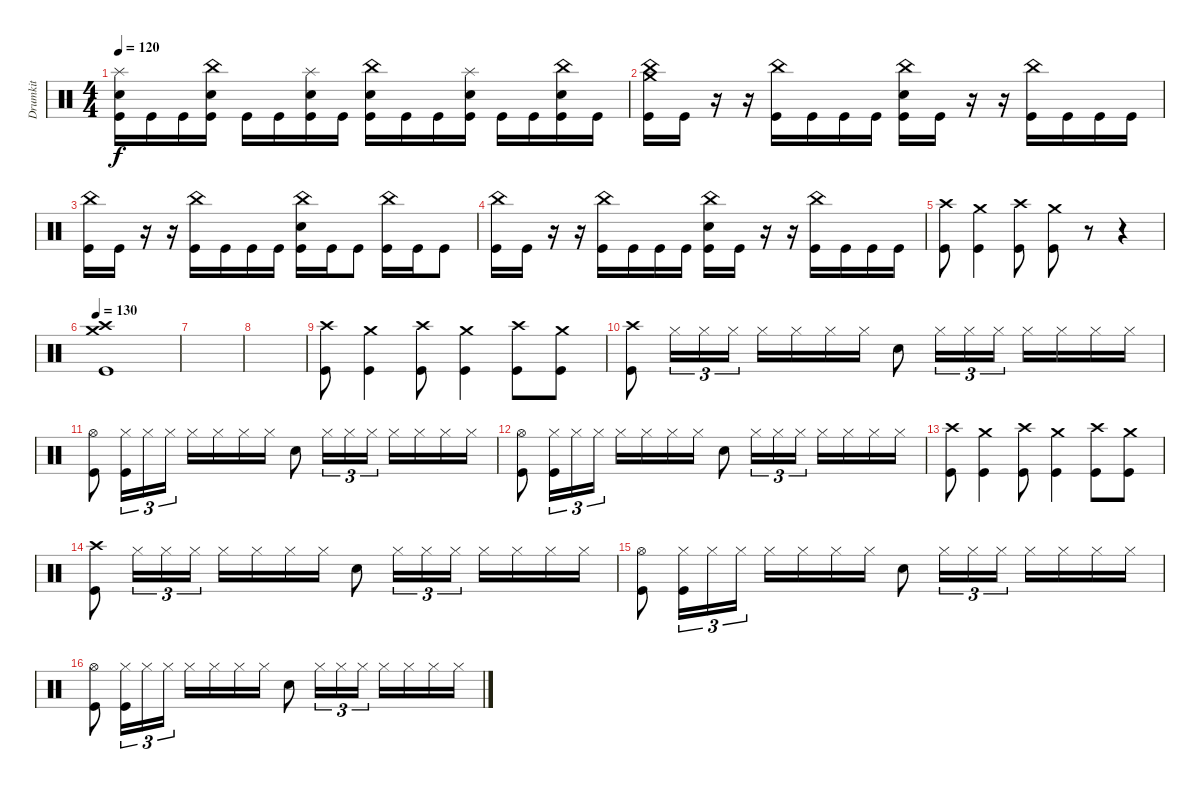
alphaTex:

\track ("Drumkit" "Drumkit") {instrument percussion}
\staff {score}
\articulation defaults
\ts (4 4)
\tempo 120
\clef neutral
\ks c
("Kick (hit)" "Snare (hit) 2" "Splash (hit)").16{dy f} "Kick (hit)".16 "Kick (hit)".16 ("Kick (hit)" "Snare (hit) 2" "China (hit)").16 "Kick (hit)".16 "Kick (hit)".16 ("Snare (hit) 2" "Splash (hit)" "Kick (hit)").16 "Kick (hit)".16 ("Kick (hit)" "China (hit)" "Snare (hit) 2").16 "Kick (hit)".16 "Kick (hit)".16 ("Kick (hit)" "Snare (hit) 2" "Splash (hit)").16 "Kick (hit)".16 "Kick (hit)".16 ("Kick (hit)" "Snare (hit) 2" "China (hit)").16 "Kick (hit)".16 |
("Kick (hit)" "China (hit)" "Crash medium (hit)").16 "Kick (hit)".16 r.16 r.16 ("Kick (hit)" "China (hit)").16 "Kick (hit)".16 "Kick (hit)".16 "Kick (hit)".16 ("Kick (hit)" "Snare (hit) 2" "China (hit)").16 "Kick (hit)".16 r.16 r.16 ("Kick (hit)" "China (hit)").16 "Kick (hit)".16 "Kick (hit)".16 "Kick (hit)".16 |
("Kick (hit)" "China (hit)").16 "Kick (hit)".16 r.16 r.16 ("Kick (hit)" "China (hit)").16 "Kick (hit)".16 "Kick (hit)".16 "Kick (hit)".16 ("Kick (hit)" "Snare (hit) 2" "China (hit)").16 "Kick (hit)".16 "Kick (hit)".8 ("Kick (hit)" "China (hit)").16 "Kick (hit)".16 "Kick (hit)".8 |
("Kick (hit)" "China (hit)").16 "Kick (hit)".16 r.16 r.16 ("Kick (hit)" "China (hit)").16 "Kick (hit)".16 "Kick (hit)".16 "Kick (hit)".16 ("Kick (hit)" "China (hit)" "Snare (hit) 2").16 "Kick (hit)".16 r.16 r.16 ("Kick (hit)" "China (hit)").16 "Kick (hit)".16 "Kick (hit)".16 "Kick (hit)".16 |
("Kick (hit)" "Crash high (hit)").8 ("Crash medium (hit)" "Kick (hit)").4 ("Kick (hit)" "Crash high (hit)").8 ("Crash medium (hit)" "Kick (hit)").8 r.8 r.4 |
\tempo 130
("Kick (hit)" "Crash high (hit)" "Crash medium (hit)").1 |
|
|
("Kick (hit)" "Crash high (hit)").8 ("Kick (hit)" "Crash medium (hit)").4 ("Kick (hit)" "Crash high (hit)").8 ("Kick (hit)" "Crash medium (hit)").4 ("Kick (hit)" "Crash high (hit)").8 ("Kick (hit)" "Crash medium (hit)").8 |
("Kick (hit)" "Crash high (hit)").8 "Hi-Hat (closed)".16{tu (3 2)} "Hi-Hat (closed)".16{tu (3 2)} "Hi-Hat (closed)".16{tu (3 2)} "Hi-Hat (closed)".16 "Hi-Hat (closed)".16 "Hi-Hat (closed)".16 "Hi-Hat (closed)".16 "Snare (hit) 2".8 "Hi-Hat (closed)".16{tu (3 2)} "Hi-Hat (closed)".16{tu (3 2)} "Hi-Hat (closed)".16{tu (3 2)} "Hi-Hat (closed)".16 "Hi-Hat (closed)".16 "Hi-Hat (closed)".16 "Hi-Hat (closed)".16 |
("Hi-Hat (open)" "Kick (hit)").8 ("Hi-Hat (closed)" "Kick (hit)").16{tu (3 2)} "Hi-Hat (closed)".16{tu (3 2)} "Hi-Hat (closed)".16{tu (3 2)} "Hi-Hat (closed)".16 "Hi-Hat (closed)".16 "Hi-Hat (closed)".16 "Hi-Hat (closed)".16 "Snare (hit) 2".8 "Hi-Hat (closed)".16{tu (3 2)} "Hi-Hat (closed)".16{tu (3 2)} "Hi-Hat (closed)".16{tu (3 2)} "Hi-Hat (closed)".16 "Hi-Hat (closed)".16 "Hi-Hat (closed)".16 "Hi-Hat (closed)".16 |
("Hi-Hat (open)" "Kick (hit)").8 ("Hi-Hat (closed)" "Kick (hit)").16{tu (3 2)} "Hi-Hat (closed)".16{tu (3 2)} "Hi-Hat (closed)".16{tu (3 2)} "Hi-Hat (closed)".16 "Hi-Hat (closed)".16 "Hi-Hat (closed)".16 "Hi-Hat (closed)".16 "Snare (hit) 2".8 "Hi-Hat (closed)".16{tu (3 2)} "Hi-Hat (closed)".16{tu (3 2)} "Hi-Hat (closed)".16{tu (3 2)} "Hi-Hat (closed)".16 "Hi-Hat (closed)".16 "Hi-Hat (closed)".16 "Hi-Hat (closed)".16 |
("Kick (hit)" "Crash high (hit)").8 ("Kick (hit)" "Crash medium (hit)").4 ("Kick (hit)" "Crash high (hit)").8 ("Kick (hit)" "Crash medium (hit)").4 ("Kick (hit)" "Crash high (hit)").8 ("Kick (hit)" "Crash medium (hit)").8 |
("Kick (hit)" "Crash high (hit)").8 "Hi-Hat (closed)".16{tu (3 2)} "Hi-Hat (closed)".16{tu (3 2)} "Hi-Hat (closed)".16{tu (3 2)} "Hi-Hat (closed)".16 "Hi-Hat (closed)".16 "Hi-Hat (closed)".16 "Hi-Hat (closed)".16 "Snare (hit) 2".8 "Hi-Hat (closed)".16{tu (3 2)} "Hi-Hat (closed)".16{tu (3 2)} "Hi-Hat (closed)".16{tu (3 2)} "Hi-Hat (closed)".16 "Hi-Hat (closed)".16 "Hi-Hat (closed)".16 "Hi-Hat (closed)".16 |
("Hi-Hat (open)" "Kick (hit)").8 ("Hi-Hat (closed)" "Kick (hit)").16{tu (3 2)} "Hi-Hat (closed)".16{tu (3 2)} "Hi-Hat (closed)".16{tu (3 2)} "Hi-Hat (closed)".16 "Hi-Hat (closed)".16 "Hi-Hat (closed)".16 "Hi-Hat (closed)".16 "Snare (hit) 2".8 "Hi-Hat (closed)".16{tu (3 2)} "Hi-Hat (closed)".16{tu (3 2)} "Hi-Hat (closed)".16{tu (3 2)} "Hi-Hat (closed)".16 "Hi-Hat (closed)".16 "Hi-Hat (closed)".16 "Hi-Hat (closed)".16 |
("Hi-Hat (open)" "Kick (hit)").8 ("Hi-Hat (closed)" "Kick (hit)").16{tu (3 2)} "Hi-Hat (closed)".16{tu (3 2)} "Hi-Hat (closed)".16{tu (3 2)} "Hi-Hat (closed)".16 "Hi-Hat (closed)".16 "Hi-Hat (closed)".16 "Hi-Hat (closed)".16 "Snare (hit) 2".8 "Hi-Hat (closed)".16{tu (3 2)} "Hi-Hat (closed)".16{tu (3 2)} "Hi-Hat (closed)".16{tu (3 2)} "Hi-Hat (closed)".16 "Hi-Hat (closed)".16 "Hi-Hat (closed)".16 "Hi-Hat (closed)".16
